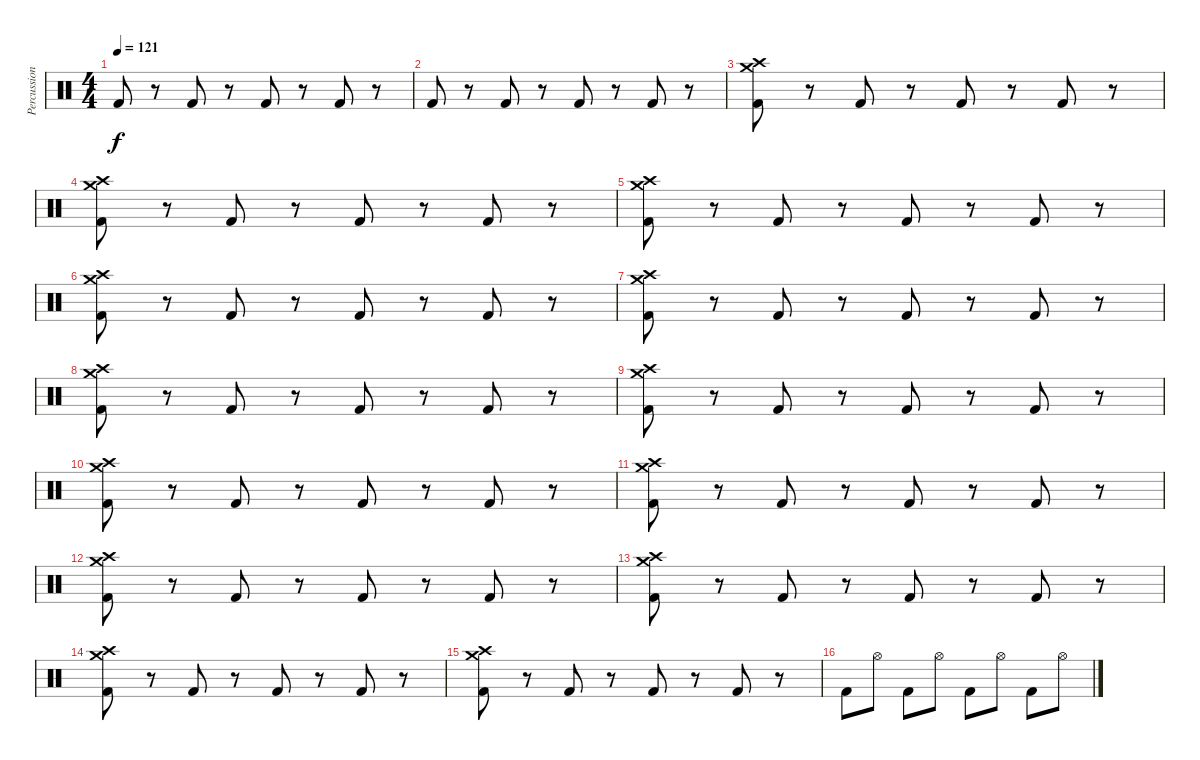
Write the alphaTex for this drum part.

\track ("Percussions" "Percussion") {instrument percussion}
\staff {score}
\articulation defaults
\ts (4 4)
\tempo 121
\clef neutral
\ks c "Kick (hit) 2".8{dy f}
r.8 "Kick (hit) 2".8 r.8 "Kick (hit) 2".8 r.8 "Kick (hit) 2".8 r.8 |
"Kick (hit) 2".8 r.8 "Kick (hit) 2".8 r.8 "Kick (hit) 2".8 r.8 "Kick (hit) 2".8 r.8 |
("Crash high (hit)" "Crash medium (hit)" "Kick (hit) 2").8 r.8 "Kick (hit) 2".8 r.8 "Kick (hit) 2".8 r.8 "Kick (hit) 2".8 r.8 |
("Crash high (hit)" "Crash medium (hit)" "Kick (hit) 2").8 r.8 "Kick (hit) 2".8 r.8 "Kick (hit) 2".8 r.8 "Kick (hit) 2".8 r.8 |
("Crash high (hit)" "Crash medium (hit)" "Kick (hit) 2").8 r.8 "Kick (hit) 2".8 r.8 "Kick (hit) 2".8 r.8 "Kick (hit) 2".8 r.8 |
("Crash high (hit)" "Crash medium (hit)" "Kick (hit) 2").8 r.8 "Kick (hit) 2".8 r.8 "Kick (hit) 2".8 r.8 "Kick (hit) 2".8 r.8 |
("Crash high (hit)" "Crash medium (hit)" "Kick (hit) 2").8 r.8 "Kick (hit) 2".8 r.8 "Kick (hit) 2".8 r.8 "Kick (hit) 2".8 r.8 |
("Crash high (hit)" "Crash medium (hit)" "Kick (hit) 2").8 r.8 "Kick (hit) 2".8 r.8 "Kick (hit) 2".8 r.8 "Kick (hit) 2".8 r.8 |
("Crash high (hit)" "Crash medium (hit)" "Kick (hit) 2").8 r.8 "Kick (hit) 2".8 r.8 "Kick (hit) 2".8 r.8 "Kick (hit) 2".8 r.8 |
("Crash high (hit)" "Crash medium (hit)" "Kick (hit) 2").8 r.8 "Kick (hit) 2".8 r.8 "Kick (hit) 2".8 r.8 "Kick (hit) 2".8 r.8 |
("Crash high (hit)" "Crash medium (hit)" "Kick (hit) 2").8 r.8 "Kick (hit) 2".8 r.8 "Kick (hit) 2".8 r.8 "Kick (hit) 2".8 r.8 |
("Crash high (hit)" "Crash medium (hit)" "Kick (hit) 2").8 r.8 "Kick (hit) 2".8 r.8 "Kick (hit) 2".8 r.8 "Kick (hit) 2".8 r.8 |
("Crash high (hit)" "Crash medium (hit)" "Kick (hit) 2").8 r.8 "Kick (hit) 2".8 r.8 "Kick (hit) 2".8 r.8 "Kick (hit) 2".8 r.8 |
("Crash high (hit)" "Crash medium (hit)" "Kick (hit) 2").8 r.8 "Kick (hit) 2".8 r.8 "Kick (hit) 2".8 r.8 "Kick (hit) 2".8 r.8 |
("Crash high (hit)" "Crash medium (hit)" "Kick (hit) 2").8 r.8 "Kick (hit) 2".8 r.8 "Kick (hit) 2".8 r.8 "Kick (hit) 2".8 r.8 |
"Kick (hit) 2".8 "Hi-Hat (open)".8 "Kick (hit) 2".8 "Hi-Hat (open)".8 "Kick (hit) 2".8 "Hi-Hat (open)".8 "Kick (hit) 2".8 "Hi-Hat (open)".8
